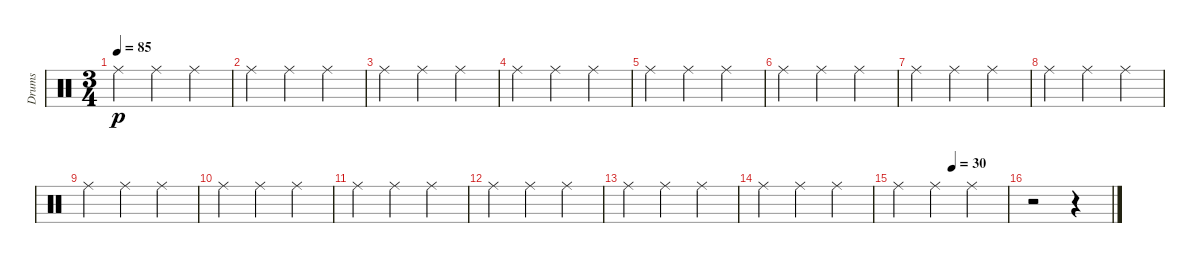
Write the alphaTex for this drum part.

\track ("Drums" "Drums") {instrument percussion}
\staff {score}
\articulation defaults
\ts (3 4)
\tempo 85
\clef neutral
\ks c "Ride (middle)".4{dy p} "Ride (middle)".4 "Ride (middle)".4
|
"Ride (middle)".4 "Ride (middle)".4 "Ride (middle)".4 |
"Ride (middle)".4 "Ride (middle)".4 "Ride (middle)".4 |
"Ride (middle)".4 "Ride (middle)".4 "Ride (middle)".4 |
"Ride (middle)".4 "Ride (middle)".4 "Ride (middle)".4 |
"Ride (middle)".4 "Ride (middle)".4 "Ride (middle)".4 |
"Ride (middle)".4 "Ride (middle)".4 "Ride (middle)".4 |
"Ride (middle)".4 "Ride (middle)".4 "Ride (middle)".4 |
"Ride (middle)".4 "Ride (middle)".4 "Ride (middle)".4 |
"Ride (middle)".4 "Ride (middle)".4 "Ride (middle)".4 |
"Ride (middle)".4 "Ride (middle)".4 "Ride (middle)".4 |
"Ride (middle)".4 "Ride (middle)".4 "Ride (middle)".4 |
"Ride (middle)".4 "Ride (middle)".4 "Ride (middle)".4 |
"Ride (middle)".4 "Ride (middle)".4 "Ride (middle)".4 |
\tempo (30 0.5)
"Ride (middle)".4 "Ride (middle)".4 "Ride (middle)".4 |
r.2 r.4
